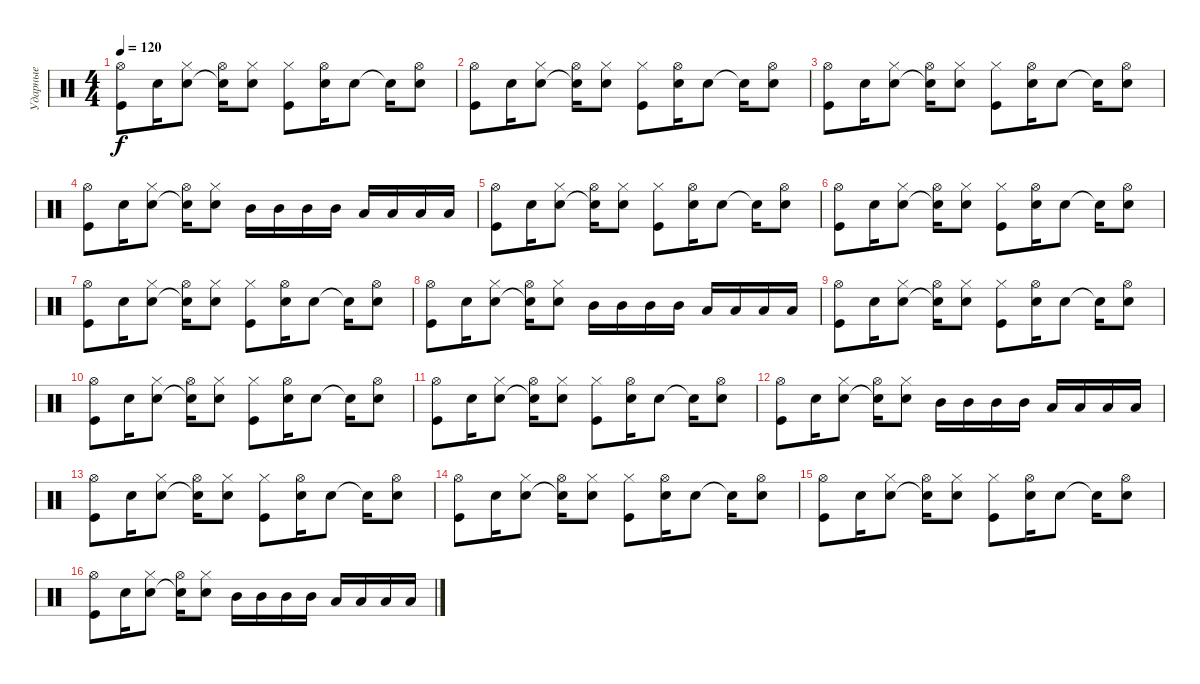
\track ("Ударные" "Ударные") {instrument percussion}
\staff {score}
\articulation defaults
\ts (4 4)
\tempo 120
\clef neutral
\ks c
("Hi-Hat (open)" "Kick (hit)").8{dy f} "Electric Snare (hit)".16 ("Hi-Hat (closed)" "Electric Snare (hit)").8 ("Hi-Hat (open)" "Snare (hit)"{t}).16 ("Hi-Hat (closed)" "Electric Snare (hit)").8 ("Hi-Hat (closed)" "Kick (hit)").8 ("Hi-Hat (open)" "Electric Snare (hit)").16 "Electric Snare (hit)".8 "Snare (hit)"{t}.16 ("Hi-Hat (open)" "Electric Snare (hit)").8 |
("Hi-Hat (open)" "Kick (hit)").8 "Electric Snare (hit)".16 ("Hi-Hat (closed)" "Electric Snare (hit)").8 ("Hi-Hat (open)" "Snare (hit)"{t}).16 ("Hi-Hat (closed)" "Electric Snare (hit)").8 ("Hi-Hat (closed)" "Kick (hit)").8 ("Hi-Hat (open)" "Electric Snare (hit)").16 "Electric Snare (hit)".8 "Snare (hit)"{t}.16 ("Hi-Hat (open)" "Electric Snare (hit)").8 |
("Hi-Hat (open)" "Kick (hit)").8 "Electric Snare (hit)".16 ("Hi-Hat (closed)" "Electric Snare (hit)").8 ("Hi-Hat (open)" "Snare (hit)"{t}).16 ("Hi-Hat (closed)" "Electric Snare (hit)").8 ("Hi-Hat (closed)" "Kick (hit)").8 ("Hi-Hat (open)" "Electric Snare (hit)").16 "Electric Snare (hit)".8 "Snare (hit)"{t}.16 ("Hi-Hat (open)" "Electric Snare (hit)").8 |
("Hi-Hat (open)" "Kick (hit)").8 "Electric Snare (hit)".16 ("Hi-Hat (closed)" "Electric Snare (hit)").8 ("Hi-Hat (open)" "Snare (hit)"{t}).16 ("Hi-Hat (closed)" "Electric Snare (hit)").8 "Mid Tom (hit)".16 "Mid Tom (hit)".16 "Mid Tom (hit)".16 "Mid Tom (hit)".16 "Low Tom (hit)".16 "Low Tom (hit)".16 "Low Tom (hit)".16 "Low Tom (hit)".16 |
("Hi-Hat (open)" "Kick (hit)").8 "Electric Snare (hit)".16 ("Hi-Hat (closed)" "Electric Snare (hit)").8 ("Hi-Hat (open)" "Snare (hit)"{t}).16 ("Hi-Hat (closed)" "Electric Snare (hit)").8 ("Hi-Hat (closed)" "Kick (hit)").8 ("Hi-Hat (open)" "Electric Snare (hit)").16 "Electric Snare (hit)".8 "Snare (hit)"{t}.16 ("Hi-Hat (open)" "Electric Snare (hit)").8 |
("Hi-Hat (open)" "Kick (hit)").8 "Electric Snare (hit)".16 ("Hi-Hat (closed)" "Electric Snare (hit)").8 ("Hi-Hat (open)" "Snare (hit)"{t}).16 ("Hi-Hat (closed)" "Electric Snare (hit)").8 ("Hi-Hat (closed)" "Kick (hit)").8 ("Hi-Hat (open)" "Electric Snare (hit)").16 "Electric Snare (hit)".8 "Snare (hit)"{t}.16 ("Hi-Hat (open)" "Electric Snare (hit)").8 |
("Hi-Hat (open)" "Kick (hit)").8 "Electric Snare (hit)".16 ("Hi-Hat (closed)" "Electric Snare (hit)").8 ("Hi-Hat (open)" "Snare (hit)"{t}).16 ("Hi-Hat (closed)" "Electric Snare (hit)").8 ("Hi-Hat (closed)" "Kick (hit)").8 ("Hi-Hat (open)" "Electric Snare (hit)").16 "Electric Snare (hit)".8 "Snare (hit)"{t}.16 ("Hi-Hat (open)" "Electric Snare (hit)").8 |
("Hi-Hat (open)" "Kick (hit)").8 "Electric Snare (hit)".16 ("Hi-Hat (closed)" "Electric Snare (hit)").8 ("Hi-Hat (open)" "Snare (hit)"{t}).16 ("Hi-Hat (closed)" "Electric Snare (hit)").8 "Mid Tom (hit)".16 "Mid Tom (hit)".16 "Mid Tom (hit)".16 "Mid Tom (hit)".16 "Low Tom (hit)".16 "Low Tom (hit)".16 "Low Tom (hit)".16 "Low Tom (hit)".16 |
("Hi-Hat (open)" "Kick (hit)").8 "Electric Snare (hit)".16 ("Hi-Hat (closed)" "Electric Snare (hit)").8 ("Hi-Hat (open)" "Snare (hit)"{t}).16 ("Hi-Hat (closed)" "Electric Snare (hit)").8 ("Hi-Hat (closed)" "Kick (hit)").8 ("Hi-Hat (open)" "Electric Snare (hit)").16 "Electric Snare (hit)".8 "Snare (hit)"{t}.16 ("Hi-Hat (open)" "Electric Snare (hit)").8 |
("Hi-Hat (open)" "Kick (hit)").8 "Electric Snare (hit)".16 ("Hi-Hat (closed)" "Electric Snare (hit)").8 ("Hi-Hat (open)" "Snare (hit)"{t}).16 ("Hi-Hat (closed)" "Electric Snare (hit)").8 ("Hi-Hat (closed)" "Kick (hit)").8 ("Hi-Hat (open)" "Electric Snare (hit)").16 "Electric Snare (hit)".8 "Snare (hit)"{t}.16 ("Hi-Hat (open)" "Electric Snare (hit)").8 |
("Hi-Hat (open)" "Kick (hit)").8 "Electric Snare (hit)".16 ("Hi-Hat (closed)" "Electric Snare (hit)").8 ("Hi-Hat (open)" "Snare (hit)"{t}).16 ("Hi-Hat (closed)" "Electric Snare (hit)").8 ("Hi-Hat (closed)" "Kick (hit)").8 ("Hi-Hat (open)" "Electric Snare (hit)").16 "Electric Snare (hit)".8 "Snare (hit)"{t}.16 ("Hi-Hat (open)" "Electric Snare (hit)").8 |
("Hi-Hat (open)" "Kick (hit)").8 "Electric Snare (hit)".16 ("Hi-Hat (closed)" "Electric Snare (hit)").8 ("Hi-Hat (open)" "Snare (hit)"{t}).16 ("Hi-Hat (closed)" "Electric Snare (hit)").8 "Mid Tom (hit)".16 "Mid Tom (hit)".16 "Mid Tom (hit)".16 "Mid Tom (hit)".16 "Low Tom (hit)".16 "Low Tom (hit)".16 "Low Tom (hit)".16 "Low Tom (hit)".16 |
("Hi-Hat (open)" "Kick (hit)").8 "Electric Snare (hit)".16 ("Hi-Hat (closed)" "Electric Snare (hit)").8 ("Hi-Hat (open)" "Snare (hit)"{t}).16 ("Hi-Hat (closed)" "Electric Snare (hit)").8 ("Hi-Hat (closed)" "Kick (hit)").8 ("Hi-Hat (open)" "Electric Snare (hit)").16 "Electric Snare (hit)".8 "Snare (hit)"{t}.16 ("Hi-Hat (open)" "Electric Snare (hit)").8 |
("Hi-Hat (open)" "Kick (hit)").8 "Electric Snare (hit)".16 ("Hi-Hat (closed)" "Electric Snare (hit)").8 ("Hi-Hat (open)" "Snare (hit)"{t}).16 ("Hi-Hat (closed)" "Electric Snare (hit)").8 ("Hi-Hat (closed)" "Kick (hit)").8 ("Hi-Hat (open)" "Electric Snare (hit)").16 "Electric Snare (hit)".8 "Snare (hit)"{t}.16 ("Hi-Hat (open)" "Electric Snare (hit)").8 |
("Hi-Hat (open)" "Kick (hit)").8 "Electric Snare (hit)".16 ("Hi-Hat (closed)" "Electric Snare (hit)").8 ("Hi-Hat (open)" "Snare (hit)"{t}).16 ("Hi-Hat (closed)" "Electric Snare (hit)").8 ("Hi-Hat (closed)" "Kick (hit)").8 ("Hi-Hat (open)" "Electric Snare (hit)").16 "Electric Snare (hit)".8 "Snare (hit)"{t}.16 ("Hi-Hat (open)" "Electric Snare (hit)").8 |
("Hi-Hat (open)" "Kick (hit)").8 "Electric Snare (hit)".16 ("Hi-Hat (closed)" "Electric Snare (hit)").8 ("Hi-Hat (open)" "Snare (hit)"{t}).16 ("Hi-Hat (closed)" "Electric Snare (hit)").8 "Mid Tom (hit)".16 "Mid Tom (hit)".16 "Mid Tom (hit)".16 "Mid Tom (hit)".16 "Low Tom (hit)".16 "Low Tom (hit)".16 "Low Tom (hit)".16 "Low Tom (hit)".16
